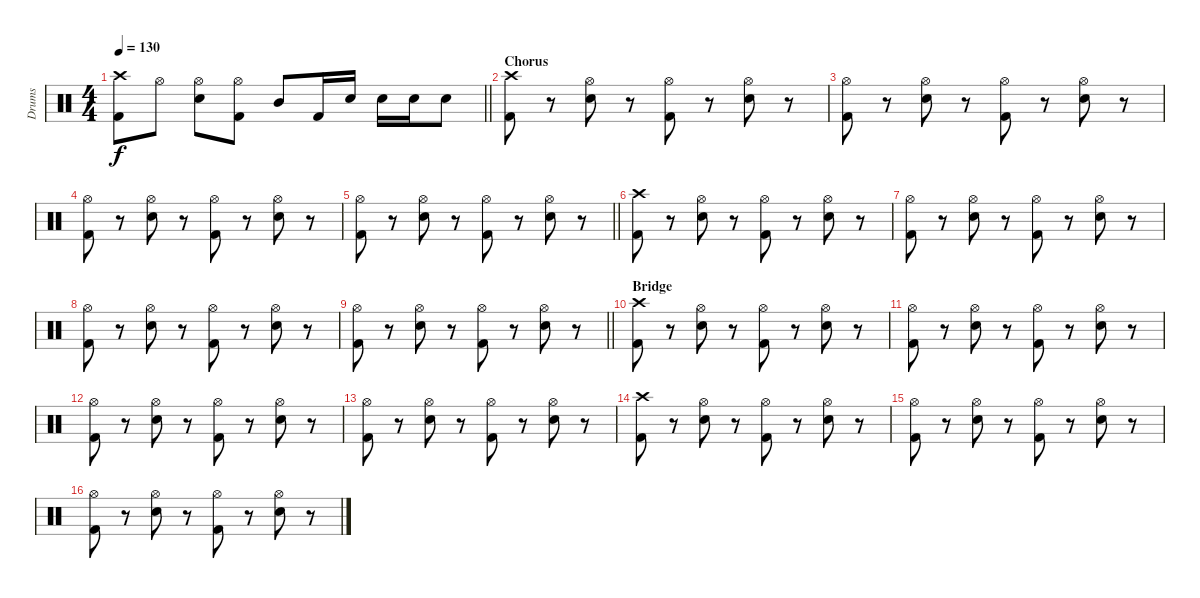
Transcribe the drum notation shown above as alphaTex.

\track ("Drums" "Drums") {instrument percussion}
\staff {score}
\articulation defaults
\ts (4 4)
\tempo 130
\clef neutral
\barLineRight lightlight
\ks c
("Crash high (hit)" "Kick (hit) 2").8{dy f} "Hi-Hat (open)".8 ("Hi-Hat (open)" "Snare (hit) 2").8 ("Hi-Hat (open)" "Kick (hit) 2").8 "Mid Tom (hit)".8 "Kick (hit) 2".16 "Snare (hit) 2".16 "Snare (hit) 2".16 "Snare (hit) 2".16 "Snare (hit) 2".8 |
\section ("" "Chorus")
("Crash high (hit)" "Kick (hit) 2").8 r.8 ("Hi-Hat (open)" "Snare (hit) 2").8 r.8 ("Hi-Hat (open)" "Kick (hit) 2").8 r.8 ("Hi-Hat (open)" "Snare (hit) 2").8 r.8 |
("Hi-Hat (open)" "Kick (hit) 2").8 r.8 ("Hi-Hat (open)" "Snare (hit) 2").8 r.8 ("Hi-Hat (open)" "Kick (hit) 2").8 r.8 ("Hi-Hat (open)" "Snare (hit) 2").8 r.8 |
("Hi-Hat (open)" "Kick (hit) 2").8 r.8 ("Hi-Hat (open)" "Snare (hit) 2").8 r.8 ("Hi-Hat (open)" "Kick (hit) 2").8 r.8 ("Hi-Hat (open)" "Snare (hit) 2").8 r.8 |
\barLineRight lightlight
("Hi-Hat (open)" "Kick (hit) 2").8 r.8 ("Hi-Hat (open)" "Snare (hit) 2").8 r.8 ("Hi-Hat (open)" "Kick (hit) 2").8 r.8 ("Hi-Hat (open)" "Snare (hit) 2").8 r.8 |
("Crash high (hit)" "Kick (hit) 2").8 r.8 ("Hi-Hat (open)" "Snare (hit) 2").8 r.8 ("Hi-Hat (open)" "Kick (hit) 2").8 r.8 ("Hi-Hat (open)" "Snare (hit) 2").8 r.8 |
("Hi-Hat (open)" "Kick (hit) 2").8 r.8 ("Hi-Hat (open)" "Snare (hit) 2").8 r.8 ("Hi-Hat (open)" "Kick (hit) 2").8 r.8 ("Hi-Hat (open)" "Snare (hit) 2").8 r.8 |
("Hi-Hat (open)" "Kick (hit) 2").8 r.8 ("Hi-Hat (open)" "Snare (hit) 2").8 r.8 ("Hi-Hat (open)" "Kick (hit) 2").8 r.8 ("Hi-Hat (open)" "Snare (hit) 2").8 r.8 |
\barLineRight lightlight
("Hi-Hat (open)" "Kick (hit) 2").8 r.8 ("Hi-Hat (open)" "Snare (hit) 2").8 r.8 ("Hi-Hat (open)" "Kick (hit) 2").8 r.8 ("Hi-Hat (open)" "Snare (hit) 2").8 r.8 |
\section ("" "Bridge")
("Crash high (hit)" "Kick (hit) 2").8 r.8 ("Hi-Hat (open)" "Snare (hit) 2").8 r.8 ("Hi-Hat (open)" "Kick (hit) 2").8 r.8 ("Hi-Hat (open)" "Snare (hit) 2").8 r.8 |
("Hi-Hat (open)" "Kick (hit) 2").8 r.8 ("Hi-Hat (open)" "Snare (hit) 2").8 r.8 ("Hi-Hat (open)" "Kick (hit) 2").8 r.8 ("Hi-Hat (open)" "Snare (hit) 2").8 r.8 |
("Hi-Hat (open)" "Kick (hit) 2").8 r.8 ("Hi-Hat (open)" "Snare (hit) 2").8 r.8 ("Hi-Hat (open)" "Kick (hit) 2").8 r.8 ("Hi-Hat (open)" "Snare (hit) 2").8 r.8 |
("Hi-Hat (open)" "Kick (hit) 2").8 r.8 ("Hi-Hat (open)" "Snare (hit) 2").8 r.8 ("Hi-Hat (open)" "Kick (hit) 2").8 r.8 ("Hi-Hat (open)" "Snare (hit) 2").8 r.8 |
("Crash high (hit)" "Kick (hit) 2").8 r.8 ("Hi-Hat (open)" "Snare (hit) 2").8 r.8 ("Hi-Hat (open)" "Kick (hit) 2").8 r.8 ("Hi-Hat (open)" "Snare (hit) 2").8 r.8 |
("Hi-Hat (open)" "Kick (hit) 2").8 r.8 ("Hi-Hat (open)" "Snare (hit) 2").8 r.8 ("Hi-Hat (open)" "Kick (hit) 2").8 r.8 ("Hi-Hat (open)" "Snare (hit) 2").8 r.8 |
("Hi-Hat (open)" "Kick (hit) 2").8 r.8 ("Hi-Hat (open)" "Snare (hit) 2").8 r.8 ("Hi-Hat (open)" "Kick (hit) 2").8 r.8 ("Hi-Hat (open)" "Snare (hit) 2").8 r.8
